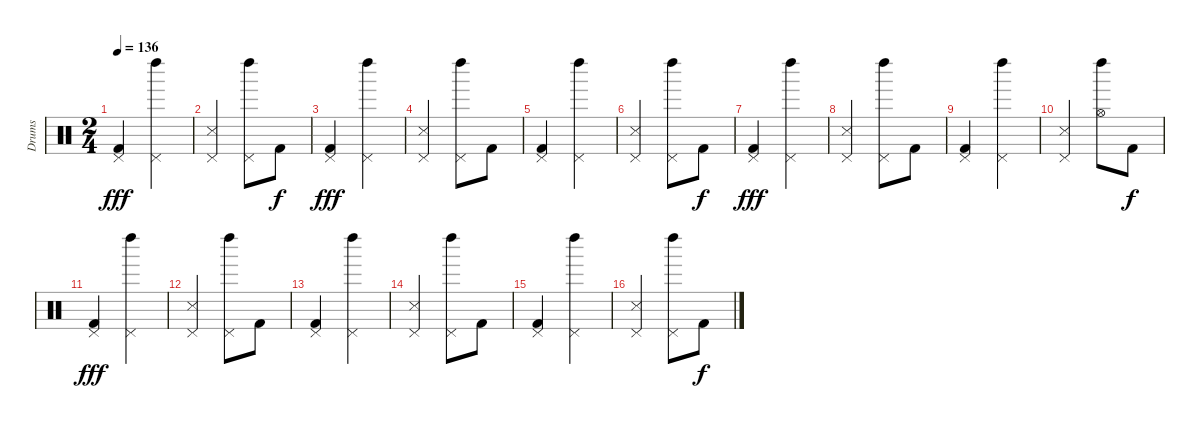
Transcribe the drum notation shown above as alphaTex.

\track ("Drums" "Drums") {instrument percussion}
\staff {score}
\articulation defaults
\ts (2 4)
\tempo 136
\clef neutral
\ks c
("Pedal Hi-Hat (hit)" "Kick (hit) 2").4{dy fff} ("Pedal Hi-Hat (hit)" "Left Maraca (hit)").4 |
("Pedal Hi-Hat (hit)" "Snare (side stick) 3").4 ("Pedal Hi-Hat (hit)" "Left Maraca (hit)").8 "Kick (hit) 2".8{dy f} |
("Pedal Hi-Hat (hit)" "Kick (hit) 2").4{dy fff} ("Pedal Hi-Hat (hit)" "Left Maraca (hit)").4 |
("Pedal Hi-Hat (hit)" "Snare (side stick) 3").4 ("Pedal Hi-Hat (hit)" "Left Maraca (hit)").8 "Kick (hit) 2".8 |
("Pedal Hi-Hat (hit)" "Kick (hit) 2").4 ("Pedal Hi-Hat (hit)" "Left Maraca (hit)").4 |
("Pedal Hi-Hat (hit)" "Snare (side stick) 3").4 ("Pedal Hi-Hat (hit)" "Left Maraca (hit)").8 "Kick (hit) 2".8{dy f} |
("Pedal Hi-Hat (hit)" "Kick (hit) 2").4{dy fff} ("Pedal Hi-Hat (hit)" "Left Maraca (hit)").4 |
("Pedal Hi-Hat (hit)" "Snare (side stick) 3").4 ("Pedal Hi-Hat (hit)" "Left Maraca (hit)").8 "Kick (hit) 2".8 |
("Pedal Hi-Hat (hit)" "Kick (hit) 2").4 ("Pedal Hi-Hat (hit)" "Left Maraca (hit)").4 |
("Pedal Hi-Hat (hit)" "Snare (side stick) 3").4 ("Hi-Hat (open)" "Left Maraca (hit)").8 "Kick (hit) 2".8{dy f} |
("Pedal Hi-Hat (hit)" "Kick (hit) 2").4{dy fff} ("Pedal Hi-Hat (hit)" "Left Maraca (hit)").4 |
("Pedal Hi-Hat (hit)" "Snare (side stick) 3").4 ("Pedal Hi-Hat (hit)" "Left Maraca (hit)").8 "Kick (hit) 2".8 |
("Pedal Hi-Hat (hit)" "Kick (hit) 2").4 ("Pedal Hi-Hat (hit)" "Left Maraca (hit)").4 |
("Pedal Hi-Hat (hit)" "Snare (side stick) 3").4 ("Pedal Hi-Hat (hit)" "Left Maraca (hit)").8 "Kick (hit) 2".8 |
("Pedal Hi-Hat (hit)" "Kick (hit) 2").4 ("Pedal Hi-Hat (hit)" "Left Maraca (hit)").4 |
("Pedal Hi-Hat (hit)" "Snare (side stick) 3").4 ("Pedal Hi-Hat (hit)" "Left Maraca (hit)").8 "Kick (hit) 2".8{dy f}
